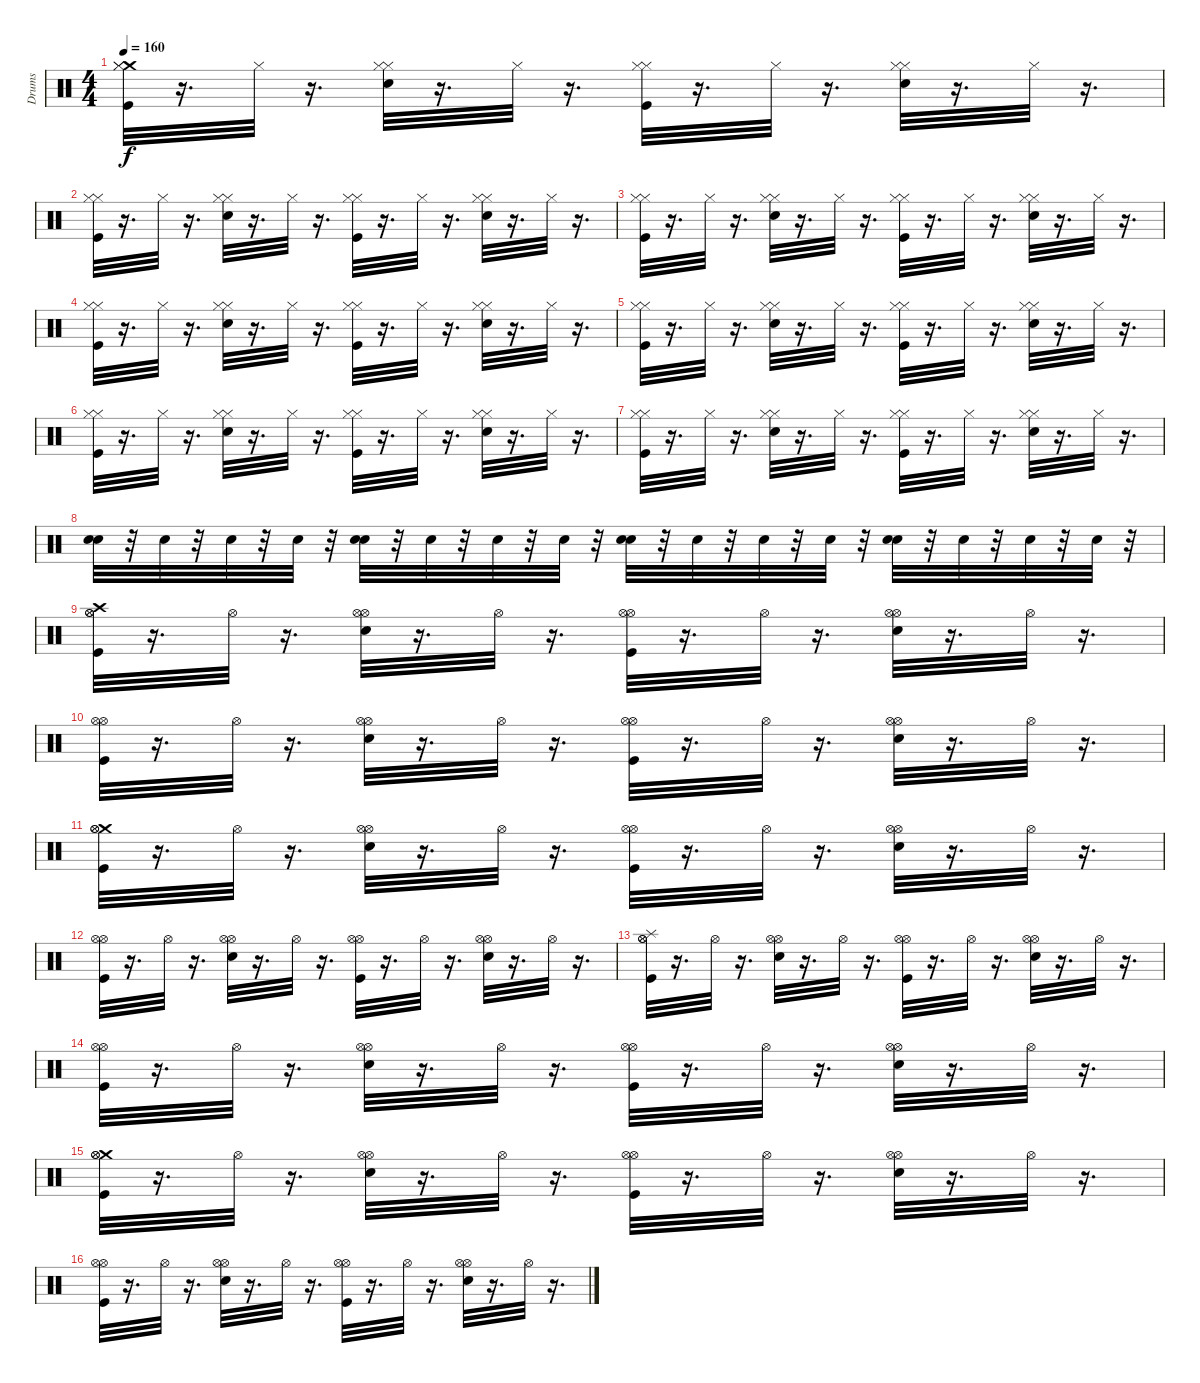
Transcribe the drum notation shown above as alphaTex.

\track ("Drums" "Drums") {instrument percussion}
\staff {score}
\articulation defaults
\ts (4 4)
\tempo 160
\clef neutral
\ks c
("Crash medium (hit)" "Hi-Hat (closed)" "Hi-Hat (closed)" "Kick (hit)").32{dy f} r.16{d} "Hi-Hat (closed)".32 r.16{d} ("Hi-Hat (closed)" "Hi-Hat (closed)" "Snare (hit) 2").32 r.16{d} "Hi-Hat (closed)".32 r.16{d} ("Hi-Hat (closed)" "Hi-Hat (closed)" "Kick (hit)").32 r.16{d} "Hi-Hat (closed)".32 r.16{d} ("Hi-Hat (closed)" "Hi-Hat (closed)" "Snare (hit) 2").32 r.16{d} "Hi-Hat (closed)".32 r.16{d} |
("Hi-Hat (closed)" "Hi-Hat (closed)" "Kick (hit)").32 r.16{d} "Hi-Hat (closed)".32 r.16{d} ("Hi-Hat (closed)" "Hi-Hat (closed)" "Snare (hit) 2").32 r.16{d} "Hi-Hat (closed)".32 r.16{d} ("Hi-Hat (closed)" "Hi-Hat (closed)" "Kick (hit)").32 r.16{d} "Hi-Hat (closed)".32 r.16{d} ("Hi-Hat (closed)" "Hi-Hat (closed)" "Snare (hit) 2").32 r.16{d} "Hi-Hat (closed)".32 r.16{d} |
("Hi-Hat (closed)" "Hi-Hat (closed)" "Kick (hit)").32 r.16{d} "Hi-Hat (closed)".32 r.16{d} ("Hi-Hat (closed)" "Hi-Hat (closed)" "Snare (hit) 2").32 r.16{d} "Hi-Hat (closed)".32 r.16{d} ("Hi-Hat (closed)" "Hi-Hat (closed)" "Kick (hit)").32 r.16{d} "Hi-Hat (closed)".32 r.16{d} ("Hi-Hat (closed)" "Hi-Hat (closed)" "Snare (hit) 2").32 r.16{d} "Hi-Hat (closed)".32 r.16{d} |
("Hi-Hat (closed)" "Hi-Hat (closed)" "Kick (hit)").32 r.16{d} "Hi-Hat (closed)".32 r.16{d} ("Hi-Hat (closed)" "Hi-Hat (closed)" "Snare (hit) 2").32 r.16{d} "Hi-Hat (closed)".32 r.16{d} ("Hi-Hat (closed)" "Hi-Hat (closed)" "Kick (hit)").32 r.16{d} "Hi-Hat (closed)".32 r.16{d} ("Hi-Hat (closed)" "Hi-Hat (closed)" "Snare (hit) 2").32 r.16{d} "Hi-Hat (closed)".32 r.16{d} |
("Hi-Hat (closed)" "Hi-Hat (closed)" "Kick (hit)").32 r.16{d} "Hi-Hat (closed)".32 r.16{d} ("Hi-Hat (closed)" "Hi-Hat (closed)" "Snare (hit) 2").32 r.16{d} "Hi-Hat (closed)".32 r.16{d} ("Hi-Hat (closed)" "Hi-Hat (closed)" "Kick (hit)").32 r.16{d} "Hi-Hat (closed)".32 r.16{d} ("Hi-Hat (closed)" "Hi-Hat (closed)" "Snare (hit) 2").32 r.16{d} "Hi-Hat (closed)".32 r.16{d} |
("Hi-Hat (closed)" "Hi-Hat (closed)" "Kick (hit)").32 r.16{d} "Hi-Hat (closed)".32 r.16{d} ("Hi-Hat (closed)" "Hi-Hat (closed)" "Snare (hit) 2").32 r.16{d} "Hi-Hat (closed)".32 r.16{d} ("Hi-Hat (closed)" "Hi-Hat (closed)" "Kick (hit)").32 r.16{d} "Hi-Hat (closed)".32 r.16{d} ("Hi-Hat (closed)" "Hi-Hat (closed)" "Snare (hit) 2").32 r.16{d} "Hi-Hat (closed)".32 r.16{d} |
("Hi-Hat (closed)" "Hi-Hat (closed)" "Kick (hit)").32 r.16{d} "Hi-Hat (closed)".32 r.16{d} ("Hi-Hat (closed)" "Hi-Hat (closed)" "Snare (hit) 2").32 r.16{d} "Hi-Hat (closed)".32 r.16{d} ("Hi-Hat (closed)" "Hi-Hat (closed)" "Kick (hit)").32 r.16{d} "Hi-Hat (closed)".32 r.16{d} ("Hi-Hat (closed)" "Hi-Hat (closed)" "Snare (hit) 2").32 r.16{d} "Hi-Hat (closed)".32 r.16{d} |
("Snare (hit) 2" "Snare (hit) 2").32 r.32 "Snare (hit) 2".32 r.32 "Snare (hit) 2".32 r.32 "Snare (hit) 2".32 r.32 ("Snare (hit) 2" "Snare (hit) 2").32 r.32 "Snare (hit) 2".32 r.32 "Snare (hit) 2".32 r.32 "Snare (hit) 2".32 r.32 ("Snare (hit) 2" "Snare (hit) 2").32 r.32 "Snare (hit) 2".32 r.32 "Snare (hit) 2".32 r.32 "Snare (hit) 2".32 r.32 ("Snare (hit) 2" "Snare (hit) 2").32 r.32 "Snare (hit) 2".32 r.32 "Snare (hit) 2".32 r.32 "Snare (hit) 2".32 r.32 |
("Crash high (hit)" "Kick (hit)" "Hi-Hat (open)" "Hi-Hat (open)").32 r.16{d} "Hi-Hat (open)".32 r.16{d} ("Hi-Hat (open)" "Snare (hit) 2" "Hi-Hat (open)").32 r.16{d} "Hi-Hat (open)".32 r.16{d} ("Hi-Hat (open)" "Kick (hit)" "Hi-Hat (open)").32 r.16{d} "Hi-Hat (open)".32 r.16{d} ("Hi-Hat (open)" "Hi-Hat (open)" "Snare (hit) 2").32 r.16{d} "Hi-Hat (open)".32 r.16{d} |
("Hi-Hat (open)" "Hi-Hat (open)" "Kick (hit)").32 r.16{d} "Hi-Hat (open)".32 r.16{d} ("Snare (hit) 2" "Hi-Hat (open)" "Hi-Hat (open)").32 r.16{d} "Hi-Hat (open)".32 r.16{d} ("Kick (hit)" "Hi-Hat (open)" "Hi-Hat (open)").32 r.16{d} "Hi-Hat (open)".32 r.16{d} ("Hi-Hat (open)" "Hi-Hat (open)" "Snare (hit) 2").32 r.16{d} "Hi-Hat (open)".32 r.16{d} |
("Crash medium (hit)" "Hi-Hat (open)" "Kick (hit)" "Hi-Hat (open)").32 r.16{d} "Hi-Hat (open)".32 r.16{d} ("Hi-Hat (open)" "Snare (hit) 2" "Hi-Hat (open)").32 r.16{d} "Hi-Hat (open)".32 r.16{d} ("Kick (hit)" "Hi-Hat (open)" "Hi-Hat (open)").32 r.16{d} "Hi-Hat (open)".32 r.16{d} ("Hi-Hat (open)" "Hi-Hat (open)" "Snare (hit) 2").32 r.16{d} "Hi-Hat (open)".32 r.16{d} |
("Kick (hit)" "Hi-Hat (open)" "Hi-Hat (open)").32 r.16{d} "Hi-Hat (open)".32 r.16{d} ("Snare (hit) 2" "Hi-Hat (open)" "Hi-Hat (open)").32 r.16{d} "Hi-Hat (open)".32 r.16{d} ("Kick (hit)" "Hi-Hat (open)" "Hi-Hat (open)").32 r.16{d} "Hi-Hat (open)".32 r.16{d} ("Hi-Hat (open)" "Snare (hit) 2" "Hi-Hat (open)").32 r.16{d} "Hi-Hat (open)".32 r.16{d} |
("Splash (hit)" "Hi-Hat (open)" "Kick (hit)" "Hi-Hat (open)").32 r.16{d} "Hi-Hat (open)".32 r.16{d} ("Hi-Hat (open)" "Hi-Hat (open)" "Snare (hit) 2").32 r.16{d} "Hi-Hat (open)".32 r.16{d} ("Hi-Hat (open)" "Hi-Hat (open)" "Kick (hit)").32 r.16{d} "Hi-Hat (open)".32 r.16{d} ("Snare (hit) 2" "Hi-Hat (open)" "Hi-Hat (open)").32 r.16{d} "Hi-Hat (open)".32 r.16{d} |
("Kick (hit)" "Hi-Hat (open)" "Hi-Hat (open)").32 r.16{d} "Hi-Hat (open)".32 r.16{d} ("Snare (hit) 2" "Hi-Hat (open)" "Hi-Hat (open)").32 r.16{d} "Hi-Hat (open)".32 r.16{d} ("Hi-Hat (open)" "Kick (hit)" "Hi-Hat (open)").32 r.16{d} "Hi-Hat (open)".32 r.16{d} ("Hi-Hat (open)" "Snare (hit) 2" "Hi-Hat (open)").32 r.16{d} "Hi-Hat (open)".32 r.16{d} |
("Crash medium (hit)" "Kick (hit)" "Hi-Hat (open)" "Hi-Hat (open)").32 r.16{d} "Hi-Hat (open)".32 r.16{d} ("Hi-Hat (open)" "Hi-Hat (open)" "Snare (hit) 2").32 r.16{d} "Hi-Hat (open)".32 r.16{d} ("Kick (hit)" "Hi-Hat (open)" "Hi-Hat (open)").32 r.16{d} "Hi-Hat (open)".32 r.16{d} ("Snare (hit) 2" "Hi-Hat (open)" "Hi-Hat (open)").32 r.16{d} "Hi-Hat (open)".32 r.16{d} |
("Kick (hit)" "Hi-Hat (open)" "Hi-Hat (open)").32 r.16{d} "Hi-Hat (open)".32 r.16{d} ("Hi-Hat (open)" "Snare (hit) 2" "Hi-Hat (open)").32 r.16{d} "Hi-Hat (open)".32 r.16{d} ("Kick (hit)" "Hi-Hat (open)" "Hi-Hat (open)").32 r.16{d} "Hi-Hat (open)".32 r.16{d} ("Snare (hit) 2" "Hi-Hat (open)" "Hi-Hat (open)").32 r.16{d} "Hi-Hat (open)".32 r.16{d}
